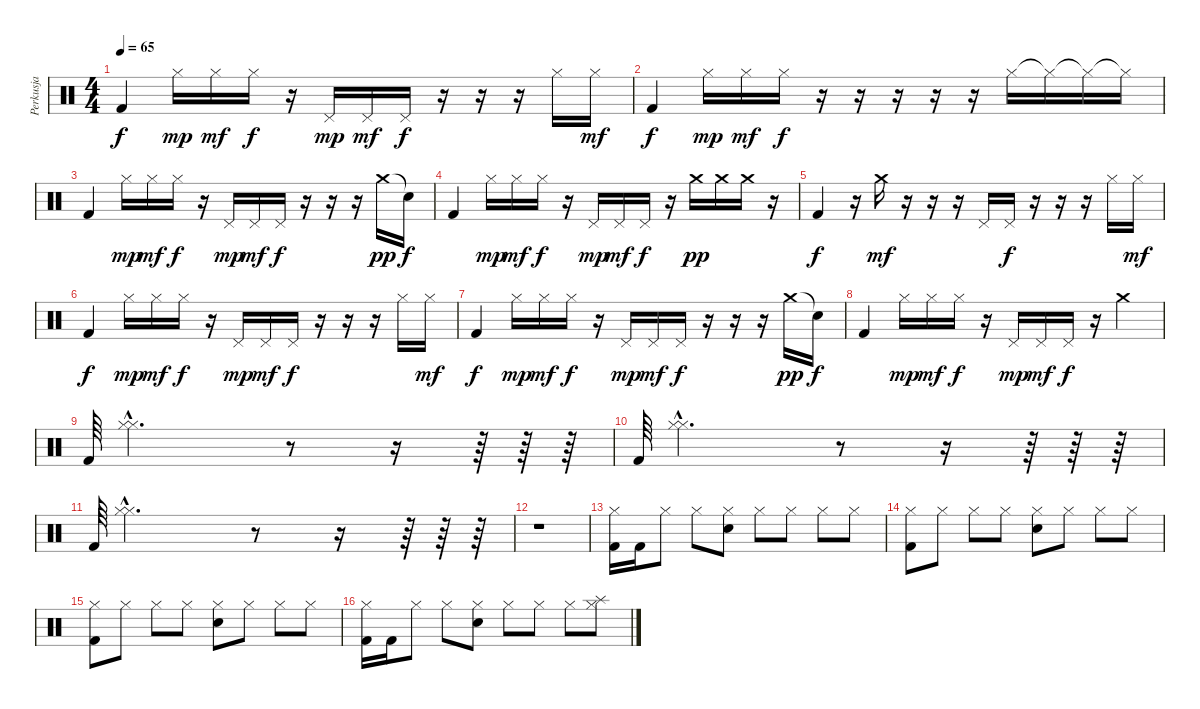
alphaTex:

\track ("Perkusja" "Perkusja") {instrument percussion}
\staff {score}
\articulation defaults
\ts (4 4)
\tempo 65
\clef neutral
\ks c "Kick (hit) 2".4{dy f} "Hi-Hat (closed)".16{dy mp} "Hi-Hat (closed)".16{dy mf} "Hi-Hat (closed)".16{dy f}
r.16 "Pedal Hi-Hat (hit)".16{dy mp} "Pedal Hi-Hat (hit)".16{dy mf} "Pedal Hi-Hat (hit)".16{dy f} r.16 r.16 r.16 "Hi-Hat (closed)".16 "Hi-Hat (closed)".16{dy mf} |
"Kick (hit) 2".4{dy f} "Hi-Hat (closed)".16{dy mp} "Hi-Hat (closed)".16{dy mf} "Hi-Hat (closed)".16{dy f} r.16 r.16 r.16 r.16 r.16 "Hi-Hat (closed)".16 "Hi-Hat (closed)"{t}.16 "Hi-Hat (closed)"{t}.16 "Hi-Hat (closed)"{t}.16 |
"Kick (hit) 2".4 "Hi-Hat (closed)".16{dy mp} "Hi-Hat (closed)".16{dy mf} "Hi-Hat (closed)".16{dy f} r.16 "Pedal Hi-Hat (hit)".16{dy mp} "Pedal Hi-Hat (hit)".16{dy mf} "Pedal Hi-Hat (hit)".16{dy f} r.16 r.16 r.16 "Crash medium (hit)".16{dy pp} "Snare (hit)"{t}.16{dy f} |
"Kick (hit) 2".4 "Hi-Hat (closed)".16{dy mp} "Hi-Hat (closed)".16{dy mf} "Hi-Hat (closed)".16{dy f} r.16 "Pedal Hi-Hat (hit)".16{dy mp} "Pedal Hi-Hat (hit)".16{dy mf} "Pedal Hi-Hat (hit)".16{dy f} r.16 "Crash medium (hit)".16{dy pp} "Crash medium (hit)".16 "Crash medium (hit)".16 r.16 |
"Kick (hit) 2".4{dy f} r.16 "Crash medium (hit)".16{dy mf} r.16 r.16 r.16 "Pedal Hi-Hat (hit)".16 "Pedal Hi-Hat (hit)".16{dy f} r.16 r.16 r.16 "Hi-Hat (closed)".16 "Hi-Hat (closed)".16{dy mf} |
"Kick (hit) 2".4{dy f} "Hi-Hat (closed)".16{dy mp} "Hi-Hat (closed)".16{dy mf} "Hi-Hat (closed)".16{dy f} r.16 "Pedal Hi-Hat (hit)".16{dy mp} "Pedal Hi-Hat (hit)".16{dy mf} "Pedal Hi-Hat (hit)".16{dy f} r.16 r.16 r.16 "Hi-Hat (closed)".16 "Hi-Hat (closed)".16{dy mf} |
"Kick (hit) 2".4{dy f} "Hi-Hat (closed)".16{dy mp} "Hi-Hat (closed)".16{dy mf} "Hi-Hat (closed)".16{dy f} r.16 "Pedal Hi-Hat (hit)".16{dy mp} "Pedal Hi-Hat (hit)".16{dy mf} "Pedal Hi-Hat (hit)".16{dy f} r.16 r.16 r.16 "Crash medium (hit)".16{dy pp} "Snare (hit)"{t}.16{dy f} |
"Kick (hit) 2".4 "Hi-Hat (closed)".16{dy mp} "Hi-Hat (closed)".16{dy mf} "Hi-Hat (closed)".16{dy f} r.16 "Pedal Hi-Hat (hit)".16{dy mp} "Pedal Hi-Hat (hit)".16{dy mf} "Pedal Hi-Hat (hit)".16{dy f} r.16 "Crash medium (hit)".4 |
"Kick (hit) 2".64 ("Hi-Hat (closed)"{hac} "Hi-Hat (closed)"{hac}).2{d} r.8 r.16 r.64 r.64 r.64 |
"Kick (hit) 2".64 ("Hi-Hat (closed)"{hac} "Hi-Hat (closed)"{hac}).2{d} r.8 r.16 r.64 r.64 r.64 |
"Kick (hit) 2".64 ("Hi-Hat (closed)"{hac} "Hi-Hat (closed)"{hac}).2{d} r.8 r.16 r.64 r.64 r.64 |
r.1 |
("Kick (hit) 2" "Hi-Hat (closed)").16 "Kick (hit) 2".16 "Hi-Hat (closed)".8 "Hi-Hat (closed)".8 ("Snare (hit) 2" "Hi-Hat (closed)").8 "Hi-Hat (closed)".8 "Hi-Hat (closed)".8 "Hi-Hat (closed)".8 "Hi-Hat (closed)".8 |
("Kick (hit) 2" "Hi-Hat (closed)").8 "Hi-Hat (closed)".8 "Hi-Hat (closed)".8 "Hi-Hat (closed)".8 ("Snare (hit) 2" "Hi-Hat (closed)").8 "Hi-Hat (closed)".8 "Hi-Hat (closed)".8 "Hi-Hat (closed)".8 |
("Kick (hit) 2" "Hi-Hat (closed)").8 "Hi-Hat (closed)".8 "Hi-Hat (closed)".8 "Hi-Hat (closed)".8 ("Snare (hit) 2" "Hi-Hat (closed)").8 "Hi-Hat (closed)".8 "Hi-Hat (closed)".8 "Hi-Hat (closed)".8 |
("Kick (hit) 2" "Hi-Hat (closed)").16 "Kick (hit) 2".16 "Hi-Hat (closed)".8 "Hi-Hat (closed)".8 ("Snare (hit) 2" "Hi-Hat (closed)").8 "Hi-Hat (closed)".8 "Hi-Hat (closed)".8 "Hi-Hat (closed)".8 ("Splash (hit)" "Hi-Hat (closed)").8
